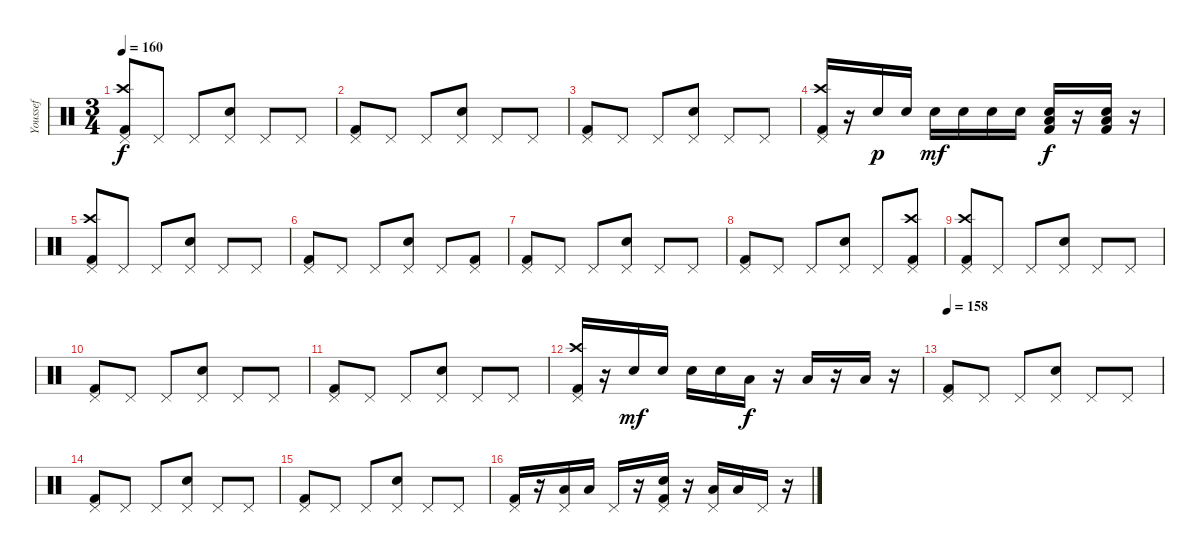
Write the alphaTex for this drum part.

\track ("Youssef" "Youssef") {instrument percussion}
\staff {score}
\articulation defaults
\ts (3 4)
\tempo 160
\clef neutral
\ks c
("Kick (hit) 2" "Crash high (hit)" "Pedal Hi-Hat (hit)").8{dy f} "Pedal Hi-Hat (hit)".8 "Pedal Hi-Hat (hit)".8 ("Electric Snare (hit)" "Pedal Hi-Hat (hit)").8 "Pedal Hi-Hat (hit)".8 "Pedal Hi-Hat (hit)".8 |
("Kick (hit) 2" "Pedal Hi-Hat (hit)").8 "Pedal Hi-Hat (hit)".8 "Pedal Hi-Hat (hit)".8 ("Electric Snare (hit)" "Pedal Hi-Hat (hit)").8 "Pedal Hi-Hat (hit)".8 "Pedal Hi-Hat (hit)".8 |
("Kick (hit) 2" "Pedal Hi-Hat (hit)").8 "Pedal Hi-Hat (hit)".8 "Pedal Hi-Hat (hit)".8 ("Electric Snare (hit)" "Pedal Hi-Hat (hit)").8 "Pedal Hi-Hat (hit)".8 "Pedal Hi-Hat (hit)".8 |
("Kick (hit) 2" "Crash high (hit)" "Pedal Hi-Hat (hit)").16 r.16 "Electric Snare (hit)".16{dy p} "Electric Snare (hit)".16 "Electric Snare (hit)".16{dy mf} "Electric Snare (hit)".16 "Electric Snare (hit)".16 "Electric Snare (hit)".16 ("Kick (hit) 2" "Electric Snare (hit)" "Low Tom (hit)").16{dy f} r.16 ("Kick (hit) 2" "Electric Snare (hit)" "Low Tom (hit)").16 r.16 |
("Kick (hit) 2" "Crash high (hit)" "Pedal Hi-Hat (hit)").8 "Pedal Hi-Hat (hit)".8 "Pedal Hi-Hat (hit)".8 ("Electric Snare (hit)" "Pedal Hi-Hat (hit)").8 "Pedal Hi-Hat (hit)".8 "Pedal Hi-Hat (hit)".8 |
("Kick (hit) 2" "Pedal Hi-Hat (hit)").8 "Pedal Hi-Hat (hit)".8 "Pedal Hi-Hat (hit)".8 ("Electric Snare (hit)" "Pedal Hi-Hat (hit)").8 "Pedal Hi-Hat (hit)".8 ("Kick (hit) 2" "Pedal Hi-Hat (hit)").8 |
("Kick (hit) 2" "Pedal Hi-Hat (hit)").8 "Pedal Hi-Hat (hit)".8 "Pedal Hi-Hat (hit)".8 ("Electric Snare (hit)" "Pedal Hi-Hat (hit)").8 "Pedal Hi-Hat (hit)".8 "Pedal Hi-Hat (hit)".8 |
("Kick (hit) 2" "Pedal Hi-Hat (hit)").8 "Pedal Hi-Hat (hit)".8 "Pedal Hi-Hat (hit)".8 ("Electric Snare (hit)" "Pedal Hi-Hat (hit)").8 "Pedal Hi-Hat (hit)".8 ("Kick (hit) 2" "Crash high (hit)" "Pedal Hi-Hat (hit)").8 |
("Kick (hit) 2" "Crash high (hit)" "Pedal Hi-Hat (hit)").8 "Pedal Hi-Hat (hit)".8 "Pedal Hi-Hat (hit)".8 ("Electric Snare (hit)" "Pedal Hi-Hat (hit)").8 "Pedal Hi-Hat (hit)".8 "Pedal Hi-Hat (hit)".8 |
("Kick (hit) 2" "Pedal Hi-Hat (hit)").8 "Pedal Hi-Hat (hit)".8 "Pedal Hi-Hat (hit)".8 ("Electric Snare (hit)" "Pedal Hi-Hat (hit)").8 "Pedal Hi-Hat (hit)".8 "Pedal Hi-Hat (hit)".8 |
("Kick (hit) 2" "Pedal Hi-Hat (hit)").8 "Pedal Hi-Hat (hit)".8 "Pedal Hi-Hat (hit)".8 ("Electric Snare (hit)" "Pedal Hi-Hat (hit)").8 "Pedal Hi-Hat (hit)".8 "Pedal Hi-Hat (hit)".8 |
("Kick (hit) 2" "Crash high (hit)" "Pedal Hi-Hat (hit)").16 r.16 "Electric Snare (hit)".16{dy mf} "Electric Snare (hit)".16 "Electric Snare (hit)".16 "Electric Snare (hit)".16 "Low Tom (hit)".16{dy f} r.16 "Low Tom (hit)".16 r.16 "Low Tom (hit)".16 r.16 |
\tempo 158
("Kick (hit) 2" "Pedal Hi-Hat (hit)").8 "Pedal Hi-Hat (hit)".8 "Pedal Hi-Hat (hit)".8 ("Electric Snare (hit)" "Pedal Hi-Hat (hit)").8 "Pedal Hi-Hat (hit)".8 "Pedal Hi-Hat (hit)".8 |
("Kick (hit) 2" "Pedal Hi-Hat (hit)").8 "Pedal Hi-Hat (hit)".8 "Pedal Hi-Hat (hit)".8 ("Electric Snare (hit)" "Pedal Hi-Hat (hit)").8 "Pedal Hi-Hat (hit)".8 "Pedal Hi-Hat (hit)".8 |
("Kick (hit) 2" "Pedal Hi-Hat (hit)").8 "Pedal Hi-Hat (hit)".8 "Pedal Hi-Hat (hit)".8 ("Electric Snare (hit)" "Pedal Hi-Hat (hit)").8 "Pedal Hi-Hat (hit)".8 "Pedal Hi-Hat (hit)".8 |
("Kick (hit) 2" "Pedal Hi-Hat (hit)").16 r.16 ("Low Tom (hit)" "Pedal Hi-Hat (hit)").16 "Low Tom (hit)".16 "Pedal Hi-Hat (hit)".16 r.16 ("Kick (hit) 2" "Electric Snare (hit)" "Pedal Hi-Hat (hit)").16 r.16 ("Low Tom (hit)" "Pedal Hi-Hat (hit)").16 "Low Tom (hit)".16 "Pedal Hi-Hat (hit)".16 r.16
